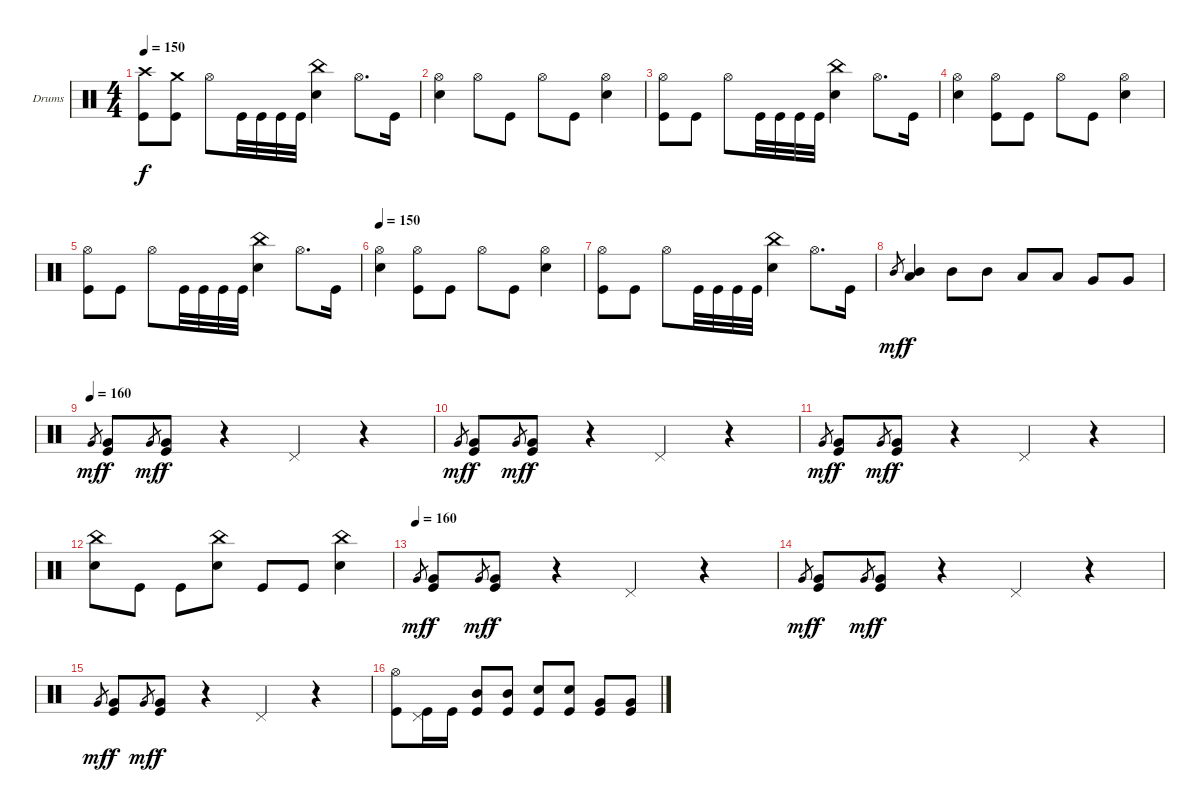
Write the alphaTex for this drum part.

\bracketExtendMode groupsimilarinstruments
\firstSystemTrackNameOrientation horizontal
\otherSystemsTrackNameOrientation horizontal
\track ("Drumkit" "Drums") {instrument percussion}
\staff {score}
\articulation defaults
\ts (4 4)
\tempo 150
\clef neutral
\ks c
("Crash high (hit)" "Kick (hit)").8{dy f} ("Crash medium (hit)" "Kick (hit)").8 "Hi-Hat (open)".8 "Kick (hit)".32 "Kick (hit)".32 "Kick (hit)".32 "Kick (hit)".32 ("China (hit)" "Snare (hit) 2").4 "Hi-Hat (open)".8{d} "Kick (hit)".16 |
("Hi-Hat (open)" "Snare (hit) 2").4 "Hi-Hat (open)".8 "Kick (hit)".8 "Hi-Hat (open)".8 "Kick (hit)".8 ("Hi-Hat (open)" "Snare (hit) 2").4 |
("Hi-Hat (open)" "Kick (hit)").8 "Kick (hit)".8 "Hi-Hat (open)".8 "Kick (hit)".32 "Kick (hit)".32 "Kick (hit)".32 "Kick (hit)".32 ("China (hit)" "Snare (hit) 2").4 "Hi-Hat (open)".8{d} "Kick (hit)".16 |
("Hi-Hat (open)" "Snare (hit) 2").4 ("Hi-Hat (open)" "Kick (hit)").8 "Kick (hit)".8 "Hi-Hat (open)".8 "Kick (hit)".8 ("Hi-Hat (open)" "Snare (hit) 2").4 |
("Hi-Hat (open)" "Kick (hit)").8 "Kick (hit)".8 "Hi-Hat (open)".8 "Kick (hit)".32 "Kick (hit)".32 "Kick (hit)".32 "Kick (hit)".32 ("China (hit)" "Snare (hit) 2").4 "Hi-Hat (open)".8{d} "Kick (hit)".16 |
\tempo 150
("Hi-Hat (open)" "Snare (hit) 2").4 ("Hi-Hat (open)" "Kick (hit)").8 "Kick (hit)".8 "Hi-Hat (open)".8 "Kick (hit)".8 ("Hi-Hat (open)" "Snare (hit) 2").4 |
("Hi-Hat (open)" "Kick (hit)").8 "Kick (hit)".8 "Hi-Hat (open)".8 "Kick (hit)".32 "Kick (hit)".32 "Kick (hit)".32 "Kick (hit)".32 ("China (hit)" "Snare (hit) 2").4 "Hi-Hat (open)".8{d} "Kick (hit)".16 |
"Mid Tom (hit)".8{gr dy mf} ("Mid Tom (hit)" "Low Tom (hit)").4{dy f} "Mid Tom (hit)".8 "Mid Tom (hit)".8 "Low Tom (hit)".8 "Low Tom (hit)".8 "Very Low Tom (hit)".8 "Very Low Tom (hit)".8 |
\tempo (160)
"Very Low Tom (hit)".8{gr dy mf} ("Very Low Tom (hit)" "Kick (hit)").8{dy f} "Very Low Tom (hit)".8{gr dy mf} ("Very Low Tom (hit)" "Kick (hit)").8{dy f} r.4 "Pedal Hi-Hat (hit)".4 r.4 |
"Very Low Tom (hit)".8{gr dy mf} ("Very Low Tom (hit)" "Kick (hit)").8{dy f} "Very Low Tom (hit)".8{gr dy mf} ("Very Low Tom (hit)" "Kick (hit)").8{dy f} r.4 "Pedal Hi-Hat (hit)".4 r.4 |
"Very Low Tom (hit)".8{gr dy mf} ("Very Low Tom (hit)" "Kick (hit)").8{dy f} "Very Low Tom (hit)".8{gr dy mf} ("Very Low Tom (hit)" "Kick (hit)").8{dy f} r.4 "Pedal Hi-Hat (hit)".4 r.4 |
("China (hit)" "Snare (hit) 2").8 "Kick (hit)".8 "Kick (hit)".8 ("China (hit)" "Snare (hit) 2").8 "Kick (hit)".8 "Kick (hit)".8 ("China (hit)" "Snare (hit) 2").4 |
\tempo (160)
"Very Low Tom (hit)".8{gr dy mf} ("Very Low Tom (hit)" "Kick (hit)").8{dy f} "Very Low Tom (hit)".8{gr dy mf} ("Very Low Tom (hit)" "Kick (hit)").8{dy f} r.4 "Pedal Hi-Hat (hit)".4 r.4 |
"Very Low Tom (hit)".8{gr dy mf} ("Very Low Tom (hit)" "Kick (hit)").8{dy f} "Very Low Tom (hit)".8{gr dy mf} ("Very Low Tom (hit)" "Kick (hit)").8{dy f} r.4 "Pedal Hi-Hat (hit)".4 r.4 |
"Very Low Tom (hit)".8{gr dy mf} ("Very Low Tom (hit)" "Kick (hit)").8{dy f} "Very Low Tom (hit)".8{gr dy mf} ("Very Low Tom (hit)" "Kick (hit)").8{dy f} r.4 "Pedal Hi-Hat (hit)".4 r.4 |
("Hi-Hat (open)" "Kick (hit)").8 ("Pedal Hi-Hat (hit)" "Kick (hit)").16 "Kick (hit)".16 ("Mid Tom (hit)" "Kick (hit)").8 ("Mid Tom (hit)" "Kick (hit)").8 ("Snare (hit) 2" "Kick (hit)").8 ("Snare (hit) 2" "Kick (hit)").8 ("Very Low Tom (hit)" "Kick (hit)").8 ("Very Low Tom (hit)" "Kick (hit)").8
